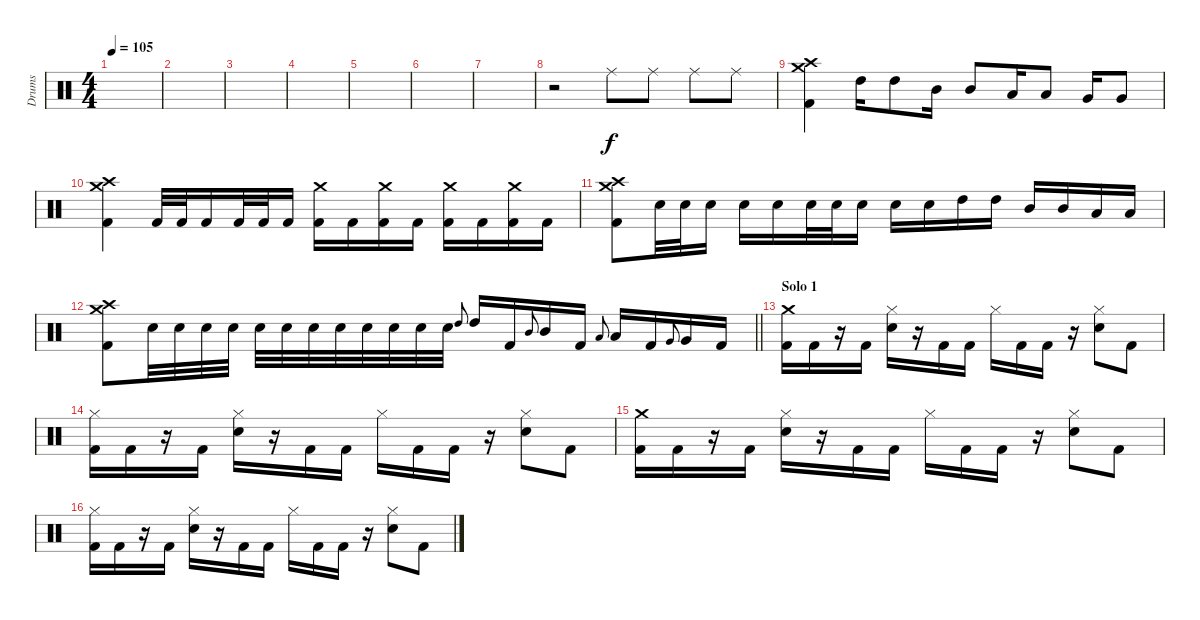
\track ("Drums" "Drums") {instrument percussion}
\staff {score}
\articulation defaults
\ts (4 4)
\tempo 105
\clef neutral
\ks c
|
|
|
|
|
|
|
r.2 "Ride (middle)".8 "Ride (middle)".8 "Ride (middle)".8 "Ride (middle)".8 |
("Kick (hit) 2" "Crash high (hit)" "Crash medium (hit)").4 "High Tom (hit)".16 "High Tom (hit)".8 "Mid Tom (hit)".16 "Mid Tom (hit)".8 "Low Tom (hit)".16 "Low Tom (hit)".8 "Very Low Tom (hit)".16 "Very Low Tom (hit)".8 |
("Kick (hit) 2" "Crash high (hit)" "Crash medium (hit)").4 "Kick (hit) 2".32 "Kick (hit) 2".32 "Kick (hit) 2".16 "Kick (hit) 2".32 "Kick (hit) 2".32 "Kick (hit) 2".16 ("Kick (hit) 2" "Crash medium (hit)").16 "Kick (hit) 2".16 ("Kick (hit) 2" "Crash medium (hit)").16 "Kick (hit) 2".16 ("Kick (hit) 2" "Crash medium (hit)").16 "Kick (hit) 2".16 ("Kick (hit) 2" "Crash medium (hit)").16 "Kick (hit) 2".16 |
("Kick (hit) 2" "Crash high (hit)" "Crash medium (hit)").8 "Snare (hit) 2".32 "Snare (hit) 2".32 "Snare (hit) 2".16 "Snare (hit) 2".16 "Snare (hit) 2".16 "Snare (hit) 2".32 "Snare (hit) 2".32 "Snare (hit) 2".16 "Snare (hit) 2".16 "Snare (hit) 2".16 "High Tom (hit)".16 "High Tom (hit)".16 "Mid Tom (hit)".16 "Mid Tom (hit)".16 "Low Tom (hit)".16 "Low Tom (hit)".16 |
\barLineRight lightlight
("Kick (hit) 2" "Crash high (hit)" "Crash medium (hit)").8 "Snare (hit) 2".32 "Snare (hit) 2".32 "Snare (hit) 2".32 "Snare (hit) 2".32 "Snare (hit) 2".32 "Snare (hit) 2".32 "Snare (hit) 2".32 "Snare (hit) 2".32 "Snare (hit) 2".32 "Snare (hit) 2".32 "Snare (hit) 2".32 "Snare (hit) 2".32 "High Tom (hit)".8{gr onbeat} "High Tom (hit)".16 "Kick (hit) 2".16 "Mid Tom (hit)".8{gr onbeat} "Mid Tom (hit)".16 "Kick (hit) 2".16 "Low Tom (hit)".8{gr onbeat} "Low Tom (hit)".16 "Kick (hit) 2".16 "Very Low Tom (hit)".8{gr onbeat} "Very Low Tom (hit)".16 "Kick (hit) 2".16 |
\section ("" "Solo 1")
("Kick (hit) 2" "Crash medium (hit)").16 "Kick (hit) 2".16 r.16 "Kick (hit) 2".16 ("Snare (hit) 2" "Hi-Hat (closed)").16 r.16 "Kick (hit) 2".16 "Kick (hit) 2".16 "Hi-Hat (closed)".16 "Kick (hit) 2".16 "Kick (hit) 2".16 r.16 ("Snare (hit) 2" "Hi-Hat (closed)").8 "Kick (hit) 2".8 |
("Kick (hit) 2" "Hi-Hat (closed)").16 "Kick (hit) 2".16 r.16 "Kick (hit) 2".16 ("Snare (hit) 2" "Hi-Hat (closed)").16 r.16 "Kick (hit) 2".16 "Kick (hit) 2".16 "Hi-Hat (closed)".16 "Kick (hit) 2".16 "Kick (hit) 2".16 r.16 ("Snare (hit) 2" "Hi-Hat (closed)").8 "Kick (hit) 2".8 |
("Kick (hit) 2" "Crash medium (hit)").16 "Kick (hit) 2".16 r.16 "Kick (hit) 2".16 ("Snare (hit) 2" "Hi-Hat (closed)").16 r.16 "Kick (hit) 2".16 "Kick (hit) 2".16 "Hi-Hat (closed)".16 "Kick (hit) 2".16 "Kick (hit) 2".16 r.16 ("Snare (hit) 2" "Hi-Hat (closed)").8 "Kick (hit) 2".8 |
("Kick (hit) 2" "Hi-Hat (closed)").16 "Kick (hit) 2".16 r.16 "Kick (hit) 2".16 ("Snare (hit) 2" "Hi-Hat (closed)").16 r.16 "Kick (hit) 2".16 "Kick (hit) 2".16 "Hi-Hat (closed)".16 "Kick (hit) 2".16 "Kick (hit) 2".16 r.16 ("Snare (hit) 2" "Hi-Hat (closed)").8 "Kick (hit) 2".8
